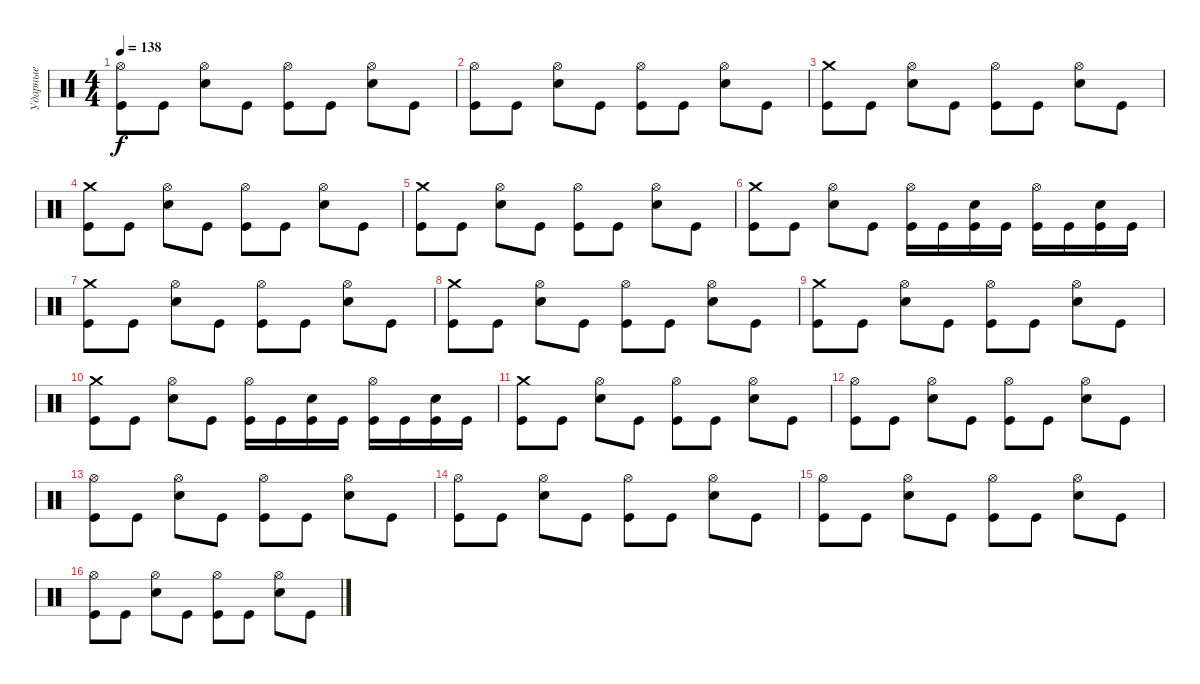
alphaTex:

\track ("Ударные" "Ударные") {instrument percussion}
\staff {score}
\articulation defaults
\ts (4 4)
\tempo 138
\clef neutral
\ks c
("Hi-Hat (open)" "Kick (hit)").8{dy f} "Kick (hit)".8 ("Hi-Hat (open)" "Snare (hit) 2").8 "Kick (hit)".8 ("Hi-Hat (open)" "Kick (hit)").8 "Kick (hit)".8 ("Hi-Hat (open)" "Snare (hit) 2").8 "Kick (hit)".8 |
("Hi-Hat (open)" "Kick (hit)").8 "Kick (hit)".8 ("Hi-Hat (open)" "Snare (hit) 2").8 "Kick (hit)".8 ("Hi-Hat (open)" "Kick (hit)").8 "Kick (hit)".8 ("Hi-Hat (open)" "Snare (hit) 2").8 "Kick (hit)".8 |
("Crash medium (hit)" "Kick (hit)").8 "Kick (hit)".8 ("Hi-Hat (open)" "Snare (hit) 2").8 "Kick (hit)".8 ("Hi-Hat (open)" "Kick (hit)").8 "Kick (hit)".8 ("Hi-Hat (open)" "Snare (hit) 2").8 "Kick (hit)".8 |
("Crash medium (hit)" "Kick (hit)").8 "Kick (hit)".8 ("Hi-Hat (open)" "Snare (hit) 2").8 "Kick (hit)".8 ("Hi-Hat (open)" "Kick (hit)").8 "Kick (hit)".8 ("Hi-Hat (open)" "Snare (hit) 2").8 "Kick (hit)".8 |
("Crash medium (hit)" "Kick (hit)").8 "Kick (hit)".8 ("Hi-Hat (open)" "Snare (hit) 2").8 "Kick (hit)".8 ("Hi-Hat (open)" "Kick (hit)").8 "Kick (hit)".8 ("Hi-Hat (open)" "Snare (hit) 2").8 "Kick (hit)".8 |
("Crash medium (hit)" "Kick (hit)").8 "Kick (hit)".8 ("Hi-Hat (open)" "Snare (hit) 2").8 "Kick (hit)".8 ("Hi-Hat (open)" "Kick (hit)").16 "Kick (hit)".16 ("Snare (hit) 2" "Kick (hit)").16 "Kick (hit)".16 ("Hi-Hat (open)" "Kick (hit)").16 "Kick (hit)".16 ("Snare (hit) 2" "Kick (hit)").16 "Kick (hit)".16 |
("Crash medium (hit)" "Kick (hit)").8 "Kick (hit)".8 ("Hi-Hat (open)" "Snare (hit) 2").8 "Kick (hit)".8 ("Hi-Hat (open)" "Kick (hit)").8 "Kick (hit)".8 ("Hi-Hat (open)" "Snare (hit) 2").8 "Kick (hit)".8 |
("Crash medium (hit)" "Kick (hit)").8 "Kick (hit)".8 ("Hi-Hat (open)" "Snare (hit) 2").8 "Kick (hit)".8 ("Hi-Hat (open)" "Kick (hit)").8 "Kick (hit)".8 ("Hi-Hat (open)" "Snare (hit) 2").8 "Kick (hit)".8 |
("Crash medium (hit)" "Kick (hit)").8 "Kick (hit)".8 ("Hi-Hat (open)" "Snare (hit) 2").8 "Kick (hit)".8 ("Hi-Hat (open)" "Kick (hit)").8 "Kick (hit)".8 ("Hi-Hat (open)" "Snare (hit) 2").8 "Kick (hit)".8 |
("Crash medium (hit)" "Kick (hit)").8 "Kick (hit)".8 ("Hi-Hat (open)" "Snare (hit) 2").8 "Kick (hit)".8 ("Hi-Hat (open)" "Kick (hit)").16 "Kick (hit)".16 ("Snare (hit) 2" "Kick (hit)").16 "Kick (hit)".16 ("Hi-Hat (open)" "Kick (hit)").16 "Kick (hit)".16 ("Snare (hit) 2" "Kick (hit)").16 "Kick (hit)".16 |
("Crash medium (hit)" "Kick (hit)").8 "Kick (hit)".8 ("Hi-Hat (open)" "Snare (hit) 2").8 "Kick (hit)".8 ("Hi-Hat (open)" "Kick (hit)").8 "Kick (hit)".8 ("Hi-Hat (open)" "Snare (hit) 2").8 "Kick (hit)".8 |
("Hi-Hat (open)" "Kick (hit)").8 "Kick (hit)".8 ("Hi-Hat (open)" "Snare (hit) 2").8 "Kick (hit)".8 ("Hi-Hat (open)" "Kick (hit)").8 "Kick (hit)".8 ("Hi-Hat (open)" "Snare (hit) 2").8 "Kick (hit)".8 |
("Hi-Hat (open)" "Kick (hit)").8 "Kick (hit)".8 ("Hi-Hat (open)" "Snare (hit) 2").8 "Kick (hit)".8 ("Hi-Hat (open)" "Kick (hit)").8 "Kick (hit)".8 ("Hi-Hat (open)" "Snare (hit) 2").8 "Kick (hit)".8 |
("Hi-Hat (open)" "Kick (hit)").8 "Kick (hit)".8 ("Hi-Hat (open)" "Snare (hit) 2").8 "Kick (hit)".8 ("Hi-Hat (open)" "Kick (hit)").8 "Kick (hit)".8 ("Hi-Hat (open)" "Snare (hit) 2").8 "Kick (hit)".8 |
("Hi-Hat (open)" "Kick (hit)").8 "Kick (hit)".8 ("Hi-Hat (open)" "Snare (hit) 2").8 "Kick (hit)".8 ("Hi-Hat (open)" "Kick (hit)").8 "Kick (hit)".8 ("Hi-Hat (open)" "Snare (hit) 2").8 "Kick (hit)".8 |
("Hi-Hat (open)" "Kick (hit)").8 "Kick (hit)".8 ("Hi-Hat (open)" "Snare (hit) 2").8 "Kick (hit)".8 ("Hi-Hat (open)" "Kick (hit)").8 "Kick (hit)".8 ("Hi-Hat (open)" "Snare (hit) 2").8 "Kick (hit)".8
